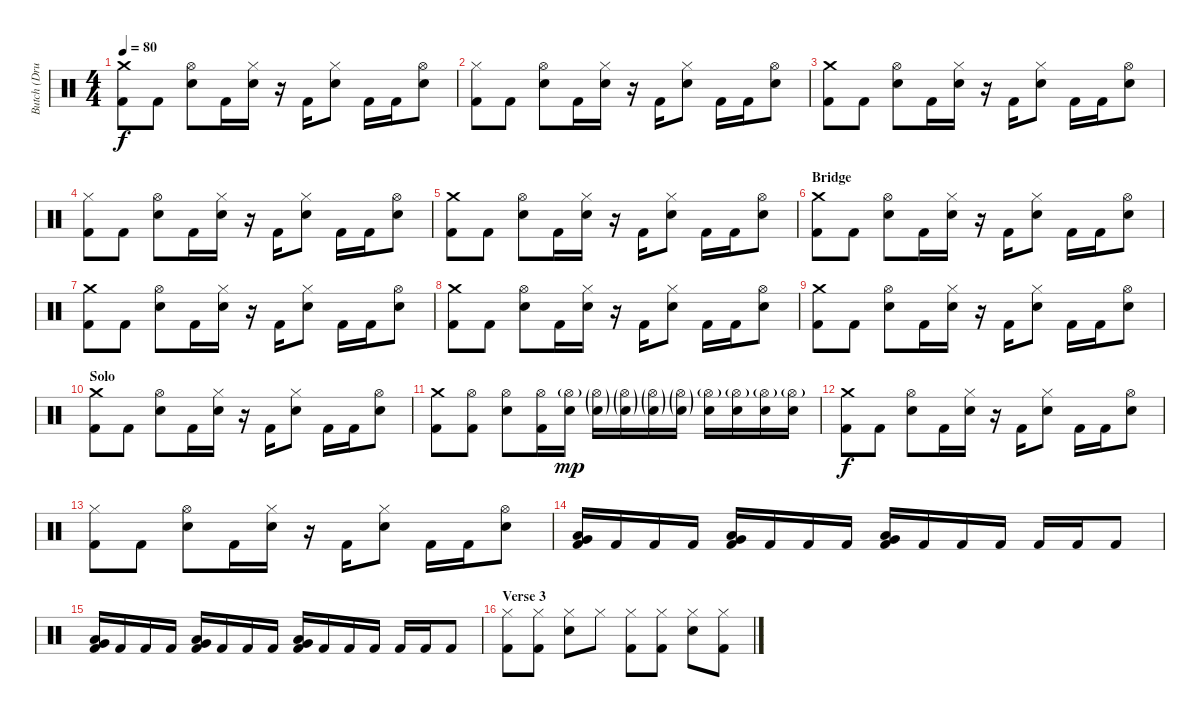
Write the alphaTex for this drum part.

\track ("Butch (Drums)" "Butch (Dru") {instrument percussion}
\staff {score}
\articulation defaults
\ts (4 4)
\tempo 80
\clef neutral
\ks c
("Crash medium (hit)" "Kick (hit) 2").8{dy f} "Kick (hit) 2".8 ("Hi-Hat (open)" "Electric Snare (hit)").8 "Kick (hit) 2".16 ("Hi-Hat (closed)" "Electric Snare (hit)").16 r.16 "Kick (hit) 2".16 ("Hi-Hat (closed)" "Electric Snare (hit)").8 "Kick (hit) 2".16 "Kick (hit) 2".16 ("Hi-Hat (open)" "Electric Snare (hit)").8 |
("Hi-Hat (closed)" "Kick (hit) 2").8 "Kick (hit) 2".8 ("Hi-Hat (open)" "Electric Snare (hit)").8 "Kick (hit) 2".16 ("Hi-Hat (closed)" "Electric Snare (hit)").16 r.16 "Kick (hit) 2".16 ("Hi-Hat (closed)" "Electric Snare (hit)").8 "Kick (hit) 2".16 "Kick (hit) 2".16 ("Hi-Hat (open)" "Electric Snare (hit)").8 |
("Crash medium (hit)" "Kick (hit) 2").8 "Kick (hit) 2".8 ("Hi-Hat (open)" "Electric Snare (hit)").8 "Kick (hit) 2".16 ("Hi-Hat (closed)" "Electric Snare (hit)").16 r.16 "Kick (hit) 2".16 ("Hi-Hat (closed)" "Electric Snare (hit)").8 "Kick (hit) 2".16 "Kick (hit) 2".16 ("Hi-Hat (open)" "Electric Snare (hit)").8 |
("Hi-Hat (closed)" "Kick (hit) 2").8 "Kick (hit) 2".8 ("Hi-Hat (open)" "Electric Snare (hit)").8 "Kick (hit) 2".16 ("Hi-Hat (closed)" "Electric Snare (hit)").16 r.16 "Kick (hit) 2".16 ("Hi-Hat (closed)" "Electric Snare (hit)").8 "Kick (hit) 2".16 "Kick (hit) 2".16 ("Hi-Hat (open)" "Electric Snare (hit)").8 |
("Crash medium (hit)" "Kick (hit) 2").8 "Kick (hit) 2".8 ("Hi-Hat (open)" "Electric Snare (hit)").8 "Kick (hit) 2".16 ("Hi-Hat (closed)" "Electric Snare (hit)").16 r.16 "Kick (hit) 2".16 ("Hi-Hat (closed)" "Electric Snare (hit)").8 "Kick (hit) 2".16 "Kick (hit) 2".16 ("Hi-Hat (open)" "Electric Snare (hit)").8 |
\section ("" "Bridge")
("Crash medium (hit)" "Kick (hit) 2").8 "Kick (hit) 2".8 ("Hi-Hat (open)" "Electric Snare (hit)").8 "Kick (hit) 2".16 ("Hi-Hat (closed)" "Electric Snare (hit)").16 r.16 "Kick (hit) 2".16 ("Hi-Hat (closed)" "Electric Snare (hit)").8 "Kick (hit) 2".16 "Kick (hit) 2".16 ("Hi-Hat (open)" "Electric Snare (hit)").8 |
("Crash medium (hit)" "Kick (hit) 2").8 "Kick (hit) 2".8 ("Hi-Hat (open)" "Electric Snare (hit)").8 "Kick (hit) 2".16 ("Hi-Hat (closed)" "Electric Snare (hit)").16 r.16 "Kick (hit) 2".16 ("Hi-Hat (closed)" "Electric Snare (hit)").8 "Kick (hit) 2".16 "Kick (hit) 2".16 ("Hi-Hat (open)" "Electric Snare (hit)").8 |
("Crash medium (hit)" "Kick (hit) 2").8 "Kick (hit) 2".8 ("Hi-Hat (open)" "Electric Snare (hit)").8 "Kick (hit) 2".16 ("Hi-Hat (closed)" "Electric Snare (hit)").16 r.16 "Kick (hit) 2".16 ("Hi-Hat (closed)" "Electric Snare (hit)").8 "Kick (hit) 2".16 "Kick (hit) 2".16 ("Hi-Hat (open)" "Electric Snare (hit)").8 |
("Crash medium (hit)" "Kick (hit) 2").8 "Kick (hit) 2".8 ("Hi-Hat (open)" "Electric Snare (hit)").8 "Kick (hit) 2".16 ("Hi-Hat (closed)" "Electric Snare (hit)").16 r.16 "Kick (hit) 2".16 ("Hi-Hat (closed)" "Electric Snare (hit)").8 "Kick (hit) 2".16 "Kick (hit) 2".16 ("Hi-Hat (open)" "Electric Snare (hit)").8 |
\section ("" "Solo")
("Crash medium (hit)" "Kick (hit) 2").8 "Kick (hit) 2".8 ("Hi-Hat (open)" "Electric Snare (hit)").8 "Kick (hit) 2".16 ("Hi-Hat (closed)" "Electric Snare (hit)").16 r.16 "Kick (hit) 2".16 ("Hi-Hat (closed)" "Electric Snare (hit)").8 "Kick (hit) 2".16 "Kick (hit) 2".16 ("Hi-Hat (open)" "Electric Snare (hit)").8 |
("Crash medium (hit)" "Kick (hit) 2").8 ("Hi-Hat (open)" "Kick (hit) 2").8 ("Hi-Hat (open)" "Electric Snare (hit)").8 ("Hi-Hat (open)" "Kick (hit) 2").16 ("Hi-Hat (open)"{g} "Electric Snare (hit)").16{dy mp} ("Hi-Hat (open)"{g} "Electric Snare (hit)"{g}).16 ("Hi-Hat (open)"{g} "Electric Snare (hit)"{g}).16 ("Hi-Hat (open)"{g} "Electric Snare (hit)"{g}).16 ("Hi-Hat (open)"{g} "Electric Snare (hit)"{g}).16 ("Hi-Hat (open)"{g} "Electric Snare (hit)").16 ("Hi-Hat (open)"{g} "Electric Snare (hit)").16 ("Hi-Hat (open)"{g} "Electric Snare (hit)").16 ("Hi-Hat (open)"{g} "Electric Snare (hit)").16 |
("Crash medium (hit)" "Kick (hit) 2").8{dy f} "Kick (hit) 2".8 ("Hi-Hat (open)" "Electric Snare (hit)").8 "Kick (hit) 2".16 ("Hi-Hat (closed)" "Electric Snare (hit)").16 r.16 "Kick (hit) 2".16 ("Hi-Hat (closed)" "Electric Snare (hit)").8 "Kick (hit) 2".16 "Kick (hit) 2".16 ("Hi-Hat (open)" "Electric Snare (hit)").8 |
("Hi-Hat (closed)" "Kick (hit) 2").8 "Kick (hit) 2".8 ("Hi-Hat (open)" "Electric Snare (hit)").8 "Kick (hit) 2".16 ("Hi-Hat (closed)" "Electric Snare (hit)").16 r.16 "Kick (hit) 2".16 ("Hi-Hat (closed)" "Electric Snare (hit)").8 "Kick (hit) 2".16 "Kick (hit) 2".16 ("Hi-Hat (open)" "Electric Snare (hit)").8 |
("Low Floor Tom (hit)" "Very Low Tom (hit)" "Kick (hit) 2").16 "Kick (hit) 2".16 "Kick (hit) 2".16 "Kick (hit) 2".16 ("Low Floor Tom (hit)" "Very Low Tom (hit)" "Kick (hit) 2").16 "Kick (hit) 2".16 "Kick (hit) 2".16 "Kick (hit) 2".16 ("Low Floor Tom (hit)" "Very Low Tom (hit)" "Kick (hit) 2").16 "Kick (hit) 2".16 "Kick (hit) 2".16 "Kick (hit) 2".16 "Kick (hit) 2".16 "Kick (hit) 2".16 "Kick (hit) 2".8 |
("Low Floor Tom (hit)" "Very Low Tom (hit)" "Kick (hit) 2").16 "Kick (hit) 2".16 "Kick (hit) 2".16 "Kick (hit) 2".16 ("Low Floor Tom (hit)" "Very Low Tom (hit)" "Kick (hit) 2").16 "Kick (hit) 2".16 "Kick (hit) 2".16 "Kick (hit) 2".16 ("Low Floor Tom (hit)" "Very Low Tom (hit)" "Kick (hit) 2").16 "Kick (hit) 2".16 "Kick (hit) 2".16 "Kick (hit) 2".16 "Kick (hit) 2".16 "Kick (hit) 2".16 "Kick (hit) 2".8 |
\section ("" "Verse 3")
("Hi-Hat (closed)" "Kick (hit) 2").8 ("Hi-Hat (closed)" "Kick (hit) 2").8 ("Hi-Hat (closed)" "Snare (hit) 2").8 "Hi-Hat (closed)".8 ("Hi-Hat (closed)" "Kick (hit) 2").8 ("Hi-Hat (closed)" "Kick (hit) 2").8 ("Hi-Hat (closed)" "Snare (hit) 2").8 ("Hi-Hat (closed)" "Kick (hit) 2").8
